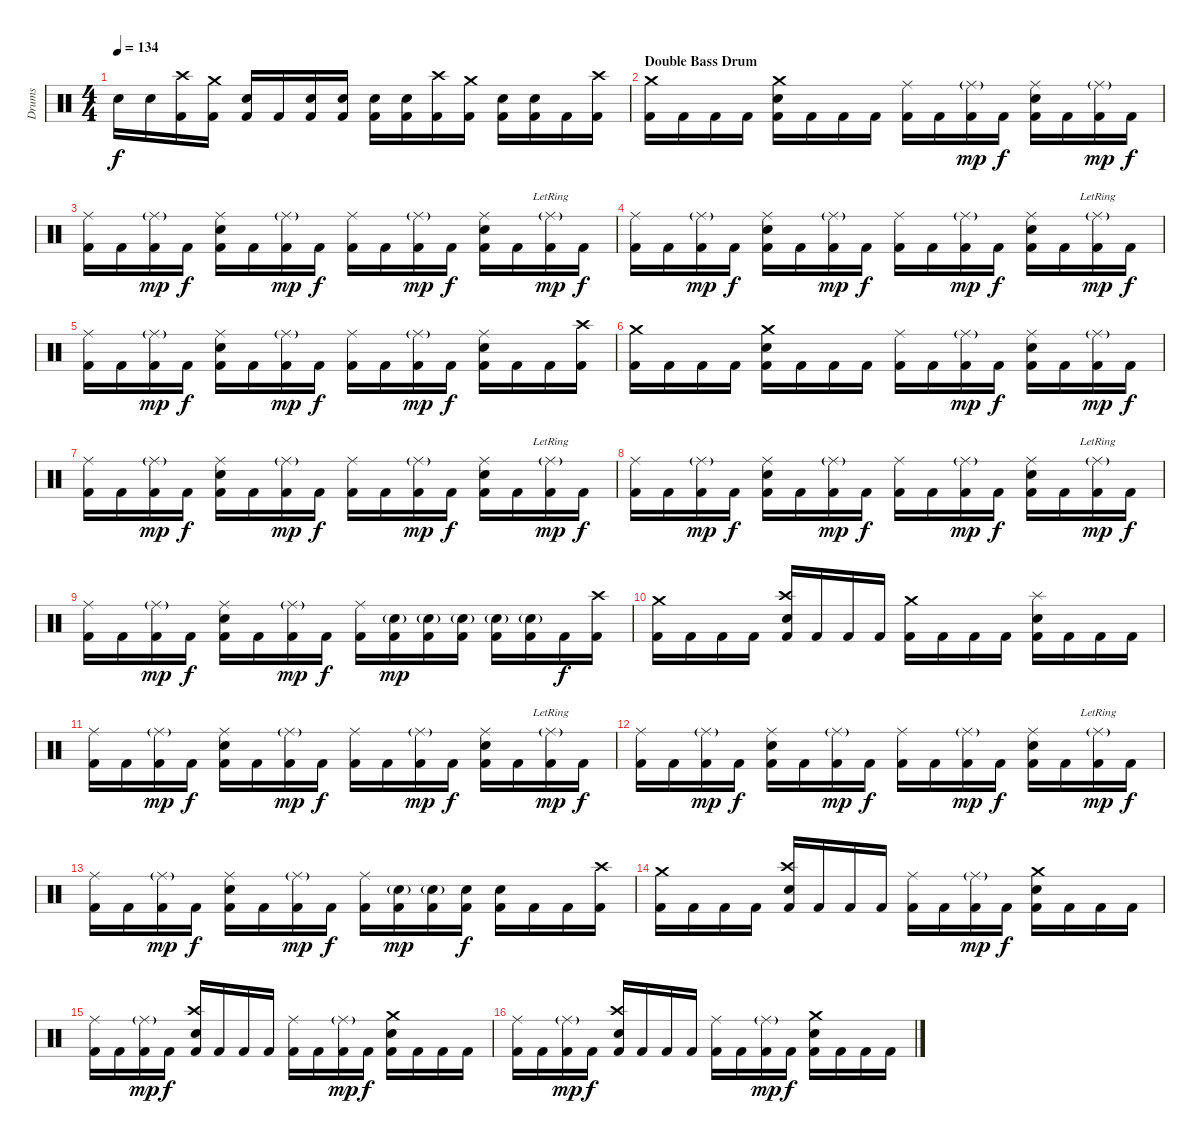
\track ("Drums" "Drums") {instrument percussion}
\staff {score}
\articulation defaults
\ts (4 4)
\tempo 134
\clef neutral
\ks c "Snare (hit) 2".16{dy f} "Snare (hit) 2".16
("Crash high (hit)" "Kick (hit) 2").16 ("Crash medium (hit)" "Kick (hit) 2").16 ("Snare (hit) 2" "Kick (hit) 2").16 "Kick (hit) 2".16 ("Snare (hit) 2" "Kick (hit) 2").16 ("Snare (hit) 2" "Kick (hit) 2").16 ("Snare (hit) 2" "Kick (hit) 2").16 ("Snare (hit) 2" "Kick (hit) 2").16 ("Crash high (hit)" "Kick (hit) 2").16 ("Crash medium (hit)" "Kick (hit) 2").16 ("Snare (hit) 2" "Kick (hit) 2").16 ("Snare (hit) 2" "Kick (hit) 2").16 "Kick (hit) 2".16 ("Crash high (hit)" "Kick (hit) 2").16 |
\section ("" "Double Bass Drum")
("Crash medium (hit)" "Kick (hit) 2").16 "Kick (hit) 2".16 "Kick (hit) 2".16 "Kick (hit) 2".16 ("Crash medium (hit)" "Snare (hit) 2" "Kick (hit) 2").16 "Kick (hit) 2".16 "Kick (hit) 2".16 "Kick (hit) 2".16 ("Ride (middle)" "Kick (hit) 2").16 "Kick (hit) 2".16 ("Ride (middle)"{g} "Kick (hit) 2").16{dy mp} "Kick (hit) 2".16{dy f} ("Ride (middle)" "Snare (hit) 2" "Kick (hit) 2").16 "Kick (hit) 2".16 ("Ride (middle)"{g} "Kick (hit) 2").16{dy mp} "Kick (hit) 2".16{dy f} |
("Ride (middle)" "Kick (hit) 2").16 "Kick (hit) 2".16 ("Ride (middle)"{g} "Kick (hit) 2").16{dy mp} "Kick (hit) 2".16{dy f} ("Ride (middle)" "Snare (hit) 2" "Kick (hit) 2").16 "Kick (hit) 2".16 ("Ride (middle)"{g} "Kick (hit) 2").16{dy mp} "Kick (hit) 2".16{dy f} ("Ride (middle)" "Kick (hit) 2").16 "Kick (hit) 2".16 ("Ride (middle)"{g} "Kick (hit) 2").16{dy mp} "Kick (hit) 2".16{dy f} ("Ride (middle)" "Snare (hit) 2" "Kick (hit) 2").16 "Kick (hit) 2".16 ("Ride (middle)"{g lr} "Kick (hit) 2").16{dy mp} "Kick (hit) 2".16{dy f} |
("Ride (middle)" "Kick (hit) 2").16 "Kick (hit) 2".16 ("Ride (middle)"{g} "Kick (hit) 2").16{dy mp} "Kick (hit) 2".16{dy f} ("Ride (middle)" "Snare (hit) 2" "Kick (hit) 2").16 "Kick (hit) 2".16 ("Ride (middle)"{g} "Kick (hit) 2").16{dy mp} "Kick (hit) 2".16{dy f} ("Ride (middle)" "Kick (hit) 2").16 "Kick (hit) 2".16 ("Ride (middle)"{g} "Kick (hit) 2").16{dy mp} "Kick (hit) 2".16{dy f} ("Ride (middle)" "Snare (hit) 2" "Kick (hit) 2").16 "Kick (hit) 2".16 ("Ride (middle)"{g lr} "Kick (hit) 2").16{dy mp} "Kick (hit) 2".16{dy f} |
("Ride (middle)" "Kick (hit) 2").16 "Kick (hit) 2".16 ("Ride (middle)"{g} "Kick (hit) 2").16{dy mp} "Kick (hit) 2".16{dy f} ("Ride (middle)" "Snare (hit) 2" "Kick (hit) 2").16 "Kick (hit) 2".16 ("Ride (middle)"{g} "Kick (hit) 2").16{dy mp} "Kick (hit) 2".16{dy f} ("Ride (middle)" "Kick (hit) 2").16 "Kick (hit) 2".16 ("Ride (middle)"{g} "Kick (hit) 2").16{dy mp} "Kick (hit) 2".16{dy f} ("Ride (middle)" "Snare (hit) 2" "Kick (hit) 2").16 "Kick (hit) 2".16 "Kick (hit) 2".16 ("Crash high (hit)" "Kick (hit) 2").16 |
("Crash medium (hit)" "Kick (hit) 2").16 "Kick (hit) 2".16 "Kick (hit) 2".16 "Kick (hit) 2".16 ("Crash medium (hit)" "Snare (hit) 2" "Kick (hit) 2").16 "Kick (hit) 2".16 "Kick (hit) 2".16 "Kick (hit) 2".16 ("Ride (middle)" "Kick (hit) 2").16 "Kick (hit) 2".16 ("Ride (middle)"{g} "Kick (hit) 2").16{dy mp} "Kick (hit) 2".16{dy f} ("Ride (middle)" "Snare (hit) 2" "Kick (hit) 2").16 "Kick (hit) 2".16 ("Ride (middle)"{g} "Kick (hit) 2").16{dy mp} "Kick (hit) 2".16{dy f} |
("Ride (middle)" "Kick (hit) 2").16 "Kick (hit) 2".16 ("Ride (middle)"{g} "Kick (hit) 2").16{dy mp} "Kick (hit) 2".16{dy f} ("Ride (middle)" "Snare (hit) 2" "Kick (hit) 2").16 "Kick (hit) 2".16 ("Ride (middle)"{g} "Kick (hit) 2").16{dy mp} "Kick (hit) 2".16{dy f} ("Ride (middle)" "Kick (hit) 2").16 "Kick (hit) 2".16 ("Ride (middle)"{g} "Kick (hit) 2").16{dy mp} "Kick (hit) 2".16{dy f} ("Ride (middle)" "Snare (hit) 2" "Kick (hit) 2").16 "Kick (hit) 2".16 ("Ride (middle)"{g lr} "Kick (hit) 2").16{dy mp} "Kick (hit) 2".16{dy f} |
("Ride (middle)" "Kick (hit) 2").16 "Kick (hit) 2".16 ("Ride (middle)"{g} "Kick (hit) 2").16{dy mp} "Kick (hit) 2".16{dy f} ("Ride (middle)" "Snare (hit) 2" "Kick (hit) 2").16 "Kick (hit) 2".16 ("Ride (middle)"{g} "Kick (hit) 2").16{dy mp} "Kick (hit) 2".16{dy f} ("Ride (middle)" "Kick (hit) 2").16 "Kick (hit) 2".16 ("Ride (middle)"{g} "Kick (hit) 2").16{dy mp} "Kick (hit) 2".16{dy f} ("Ride (middle)" "Snare (hit) 2" "Kick (hit) 2").16 "Kick (hit) 2".16 ("Ride (middle)"{g lr} "Kick (hit) 2").16{dy mp} "Kick (hit) 2".16{dy f} |
("Ride (middle)" "Kick (hit) 2").16 "Kick (hit) 2".16 ("Ride (middle)"{g} "Kick (hit) 2").16{dy mp} "Kick (hit) 2".16{dy f} ("Ride (middle)" "Snare (hit) 2" "Kick (hit) 2").16 "Kick (hit) 2".16 ("Ride (middle)"{g} "Kick (hit) 2").16{dy mp} "Kick (hit) 2".16{dy f} ("Ride (middle)" "Kick (hit) 2").16 ("Snare (hit) 2"{g} "Kick (hit) 2").16{dy mp} ("Snare (hit) 2"{g} "Kick (hit) 2").16 ("Snare (hit) 2"{g} "Kick (hit) 2").16 ("Snare (hit) 2"{g} "Kick (hit) 2").16 ("Snare (hit) 2"{g} "Kick (hit) 2").16 "Kick (hit) 2".16{dy f} ("Crash high (hit)" "Kick (hit) 2").16 |
("Crash medium (hit)" "Kick (hit) 2").16 "Kick (hit) 2".16 "Kick (hit) 2".16 "Kick (hit) 2".16 ("Crash high (hit)" "Snare (hit) 2" "Kick (hit) 2").16 "Kick (hit) 2".16 "Kick (hit) 2".16 "Kick (hit) 2".16 ("Crash medium (hit)" "Kick (hit) 2").16 "Kick (hit) 2".16 "Kick (hit) 2".16 "Kick (hit) 2".16 ("Splash (hit)" "Snare (hit) 2" "Kick (hit) 2").16 "Kick (hit) 2".16 "Kick (hit) 2".16 "Kick (hit) 2".16 |
("Ride (middle)" "Kick (hit) 2").16 "Kick (hit) 2".16 ("Ride (middle)"{g} "Kick (hit) 2").16{dy mp} "Kick (hit) 2".16{dy f} ("Ride (middle)" "Snare (hit) 2" "Kick (hit) 2").16 "Kick (hit) 2".16 ("Ride (middle)"{g} "Kick (hit) 2").16{dy mp} "Kick (hit) 2".16{dy f} ("Ride (middle)" "Kick (hit) 2").16 "Kick (hit) 2".16 ("Ride (middle)"{g} "Kick (hit) 2").16{dy mp} "Kick (hit) 2".16{dy f} ("Ride (middle)" "Snare (hit) 2" "Kick (hit) 2").16 "Kick (hit) 2".16 ("Ride (middle)"{g lr} "Kick (hit) 2").16{dy mp} "Kick (hit) 2".16{dy f} |
("Ride (middle)" "Kick (hit) 2").16 "Kick (hit) 2".16 ("Ride (middle)"{g} "Kick (hit) 2").16{dy mp} "Kick (hit) 2".16{dy f} ("Ride (middle)" "Snare (hit) 2" "Kick (hit) 2").16 "Kick (hit) 2".16 ("Ride (middle)"{g} "Kick (hit) 2").16{dy mp} "Kick (hit) 2".16{dy f} ("Ride (middle)" "Kick (hit) 2").16 "Kick (hit) 2".16 ("Ride (middle)"{g} "Kick (hit) 2").16{dy mp} "Kick (hit) 2".16{dy f} ("Ride (middle)" "Snare (hit) 2" "Kick (hit) 2").16 "Kick (hit) 2".16 ("Ride (middle)"{g lr} "Kick (hit) 2").16{dy mp} "Kick (hit) 2".16{dy f} |
("Ride (middle)" "Kick (hit) 2").16 "Kick (hit) 2".16 ("Ride (middle)"{g} "Kick (hit) 2").16{dy mp} "Kick (hit) 2".16{dy f} ("Ride (middle)" "Snare (hit) 2" "Kick (hit) 2").16 "Kick (hit) 2".16 ("Ride (middle)"{g} "Kick (hit) 2").16{dy mp} "Kick (hit) 2".16{dy f} ("Ride (middle)" "Kick (hit) 2").16 ("Snare (hit) 2"{g} "Kick (hit) 2").16{dy mp} ("Snare (hit) 2"{g} "Kick (hit) 2").16 ("Snare (hit) 2" "Kick (hit) 2").16{dy f} ("Snare (hit) 2" "Kick (hit) 2").16 "Kick (hit) 2".16 "Kick (hit) 2".16 ("Crash high (hit)" "Kick (hit) 2").16 |
("Crash medium (hit)" "Kick (hit) 2").16 "Kick (hit) 2".16 "Kick (hit) 2".16 "Kick (hit) 2".16 ("Crash high (hit)" "Snare (hit) 2" "Kick (hit) 2").16 "Kick (hit) 2".16 "Kick (hit) 2".16 "Kick (hit) 2".16 ("Ride (middle)" "Kick (hit) 2").16 "Kick (hit) 2".16 ("Ride (middle)"{g} "Kick (hit) 2").16{dy mp} "Kick (hit) 2".16{dy f} ("Crash medium (hit)" "Snare (hit) 2" "Kick (hit) 2").16 "Kick (hit) 2".16 "Kick (hit) 2".16 "Kick (hit) 2".16 |
("Ride (middle)" "Kick (hit) 2").16 "Kick (hit) 2".16 ("Ride (middle)"{g} "Kick (hit) 2").16{dy mp} "Kick (hit) 2".16{dy f} ("Crash high (hit)" "Snare (hit) 2" "Kick (hit) 2").16 "Kick (hit) 2".16 "Kick (hit) 2".16 "Kick (hit) 2".16 ("Ride (middle)" "Kick (hit) 2").16 "Kick (hit) 2".16 ("Ride (middle)"{g} "Kick (hit) 2").16{dy mp} "Kick (hit) 2".16{dy f} ("Crash medium (hit)" "Snare (hit) 2" "Kick (hit) 2").16 "Kick (hit) 2".16 "Kick (hit) 2".16 "Kick (hit) 2".16 |
("Ride (middle)" "Kick (hit) 2").16 "Kick (hit) 2".16 ("Ride (middle)"{g} "Kick (hit) 2").16{dy mp} "Kick (hit) 2".16{dy f} ("Crash high (hit)" "Snare (hit) 2" "Kick (hit) 2").16 "Kick (hit) 2".16 "Kick (hit) 2".16 "Kick (hit) 2".16 ("Ride (middle)" "Kick (hit) 2").16 "Kick (hit) 2".16 ("Ride (middle)"{g} "Kick (hit) 2").16{dy mp} "Kick (hit) 2".16{dy f} ("Crash medium (hit)" "Snare (hit) 2" "Kick (hit) 2").16 "Kick (hit) 2".16 "Kick (hit) 2".16 "Kick (hit) 2".16
